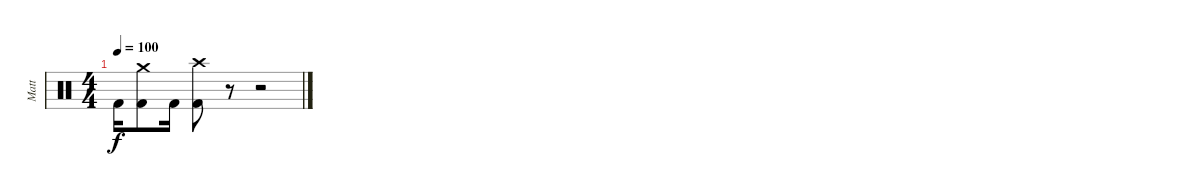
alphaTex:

\track ("Matt" "Matt") {instrument percussion}
\staff {score}
\articulation defaults
\ts (4 4)
\tempo 100
\clef neutral
\ks c "Kick (hit) 2".16{dy f}
("Crash medium (hit)" "Kick (hit) 2").8 "Kick (hit) 2".16 ("Crash high (hit)" "Kick (hit) 2").8 r.8 r.2
